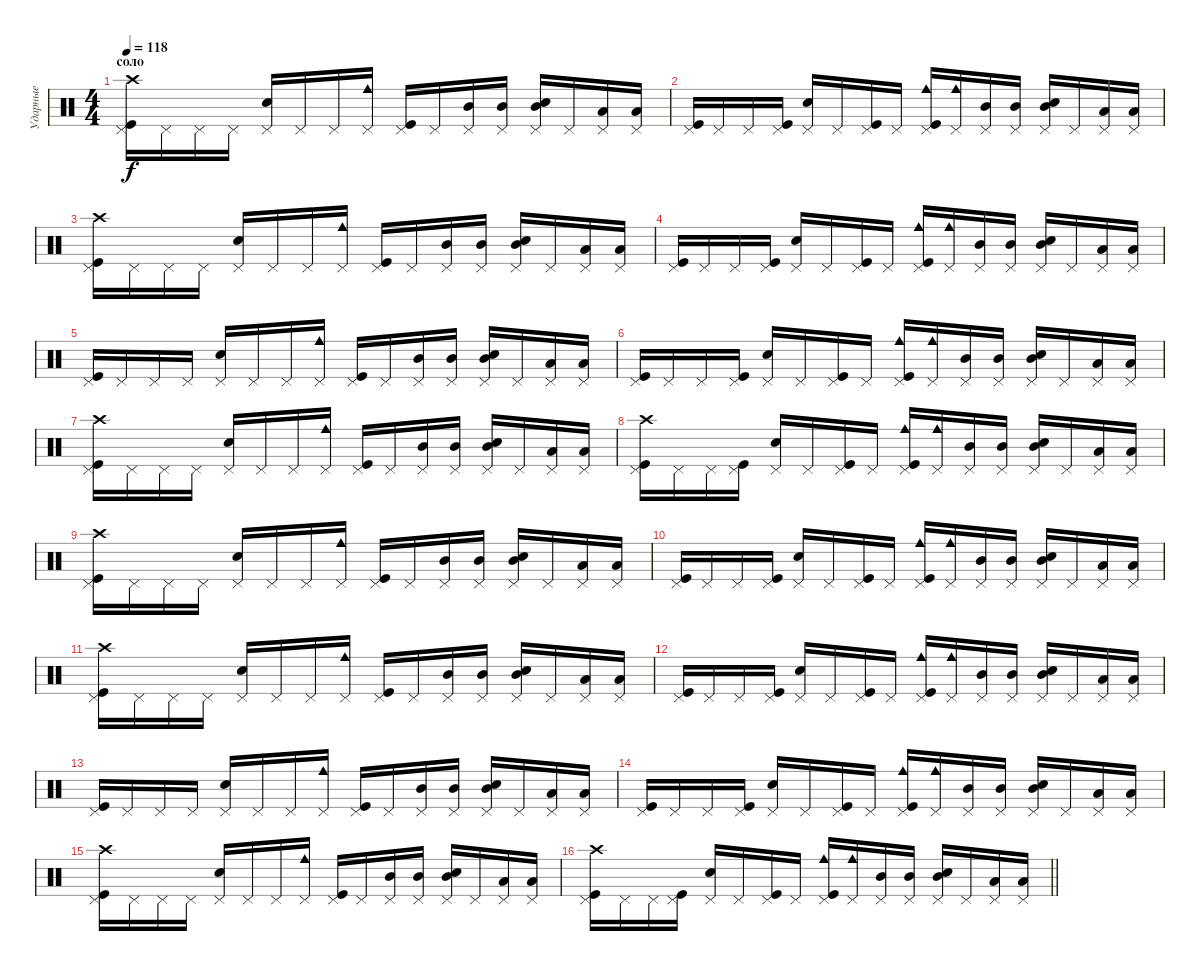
\track ("Ударные" "Ударные") {instrument percussion}
\staff {score}
\articulation defaults
\ts (4 4)
\section ("" "соло")
\tempo 118
\clef neutral
\ks c
("Pedal Hi-Hat (hit)" "Kick (hit)" "Crash high (hit)").16{dy f} "Pedal Hi-Hat (hit)".16 "Pedal Hi-Hat (hit)".16 "Pedal Hi-Hat (hit)".16 ("Pedal Hi-Hat (hit)" "Snare (hit) 2").16 "Pedal Hi-Hat (hit)".16 "Pedal Hi-Hat (hit)".16 ("Pedal Hi-Hat (hit)" "Cowbell medium (hit)").16 ("Pedal Hi-Hat (hit)" "Kick (hit)").16 "Pedal Hi-Hat (hit)".16 ("Pedal Hi-Hat (hit)" "Mid Tom (hit)").16 ("Pedal Hi-Hat (hit)" "Mid Tom (hit)").16 ("Pedal Hi-Hat (hit)" "Mid Tom (hit)" "Snare (hit) 2").16 "Pedal Hi-Hat (hit)".16 ("Pedal Hi-Hat (hit)" "Low Tom (hit)").16 ("Pedal Hi-Hat (hit)" "Low Tom (hit)").16 |
("Pedal Hi-Hat (hit)" "Kick (hit)").16 "Pedal Hi-Hat (hit)".16 "Pedal Hi-Hat (hit)".16 ("Pedal Hi-Hat (hit)" "Kick (hit)").16 ("Pedal Hi-Hat (hit)" "Snare (hit) 2").16 "Pedal Hi-Hat (hit)".16 ("Pedal Hi-Hat (hit)" "Kick (hit)").16 "Pedal Hi-Hat (hit)".16 ("Pedal Hi-Hat (hit)" "Kick (hit)" "Cowbell medium (hit)").16 ("Pedal Hi-Hat (hit)" "Cowbell medium (hit)").16 ("Pedal Hi-Hat (hit)" "Mid Tom (hit)").16 ("Pedal Hi-Hat (hit)" "Mid Tom (hit)").16 ("Pedal Hi-Hat (hit)" "Mid Tom (hit)" "Snare (hit) 2").16 "Pedal Hi-Hat (hit)".16 ("Pedal Hi-Hat (hit)" "Low Tom (hit)").16 ("Pedal Hi-Hat (hit)" "Low Tom (hit)").16 |
("Pedal Hi-Hat (hit)" "Kick (hit)" "Crash high (hit)").16 "Pedal Hi-Hat (hit)".16 "Pedal Hi-Hat (hit)".16 "Pedal Hi-Hat (hit)".16 ("Pedal Hi-Hat (hit)" "Snare (hit) 2").16 "Pedal Hi-Hat (hit)".16 "Pedal Hi-Hat (hit)".16 ("Pedal Hi-Hat (hit)" "Cowbell medium (hit)").16 ("Pedal Hi-Hat (hit)" "Kick (hit)").16 "Pedal Hi-Hat (hit)".16 ("Pedal Hi-Hat (hit)" "Mid Tom (hit)").16 ("Pedal Hi-Hat (hit)" "Mid Tom (hit)").16 ("Pedal Hi-Hat (hit)" "Mid Tom (hit)" "Snare (hit) 2").16 "Pedal Hi-Hat (hit)".16 ("Pedal Hi-Hat (hit)" "Low Tom (hit)").16 ("Pedal Hi-Hat (hit)" "Low Tom (hit)").16 |
("Pedal Hi-Hat (hit)" "Kick (hit)").16 "Pedal Hi-Hat (hit)".16 "Pedal Hi-Hat (hit)".16 ("Pedal Hi-Hat (hit)" "Kick (hit)").16 ("Pedal Hi-Hat (hit)" "Snare (hit) 2").16 "Pedal Hi-Hat (hit)".16 ("Pedal Hi-Hat (hit)" "Kick (hit)").16 "Pedal Hi-Hat (hit)".16 ("Pedal Hi-Hat (hit)" "Kick (hit)" "Cowbell medium (hit)").16 ("Pedal Hi-Hat (hit)" "Cowbell medium (hit)").16 ("Pedal Hi-Hat (hit)" "Mid Tom (hit)").16 ("Pedal Hi-Hat (hit)" "Mid Tom (hit)").16 ("Pedal Hi-Hat (hit)" "Mid Tom (hit)" "Snare (hit) 2").16 "Pedal Hi-Hat (hit)".16 ("Pedal Hi-Hat (hit)" "Low Tom (hit)").16 ("Pedal Hi-Hat (hit)" "Low Tom (hit)").16 |
("Pedal Hi-Hat (hit)" "Kick (hit)").16 "Pedal Hi-Hat (hit)".16 "Pedal Hi-Hat (hit)".16 "Pedal Hi-Hat (hit)".16 ("Pedal Hi-Hat (hit)" "Snare (hit) 2").16 "Pedal Hi-Hat (hit)".16 "Pedal Hi-Hat (hit)".16 ("Pedal Hi-Hat (hit)" "Cowbell medium (hit)").16 ("Pedal Hi-Hat (hit)" "Kick (hit)").16 "Pedal Hi-Hat (hit)".16 ("Pedal Hi-Hat (hit)" "Mid Tom (hit)").16 ("Pedal Hi-Hat (hit)" "Mid Tom (hit)").16 ("Pedal Hi-Hat (hit)" "Mid Tom (hit)" "Snare (hit) 2").16 "Pedal Hi-Hat (hit)".16 ("Pedal Hi-Hat (hit)" "Low Tom (hit)").16 ("Pedal Hi-Hat (hit)" "Low Tom (hit)").16 |
("Pedal Hi-Hat (hit)" "Kick (hit)").16 "Pedal Hi-Hat (hit)".16 "Pedal Hi-Hat (hit)".16 ("Pedal Hi-Hat (hit)" "Kick (hit)").16 ("Pedal Hi-Hat (hit)" "Snare (hit) 2").16 "Pedal Hi-Hat (hit)".16 ("Pedal Hi-Hat (hit)" "Kick (hit)").16 "Pedal Hi-Hat (hit)".16 ("Pedal Hi-Hat (hit)" "Kick (hit)" "Cowbell medium (hit)").16 ("Pedal Hi-Hat (hit)" "Cowbell medium (hit)").16 ("Pedal Hi-Hat (hit)" "Mid Tom (hit)").16 ("Pedal Hi-Hat (hit)" "Mid Tom (hit)").16 ("Pedal Hi-Hat (hit)" "Mid Tom (hit)" "Snare (hit) 2").16 "Pedal Hi-Hat (hit)".16 ("Pedal Hi-Hat (hit)" "Low Tom (hit)").16 ("Pedal Hi-Hat (hit)" "Low Tom (hit)").16 |
("Pedal Hi-Hat (hit)" "Kick (hit)" "Crash high (hit)").16 "Pedal Hi-Hat (hit)".16 "Pedal Hi-Hat (hit)".16 "Pedal Hi-Hat (hit)".16 ("Pedal Hi-Hat (hit)" "Snare (hit) 2").16 "Pedal Hi-Hat (hit)".16 "Pedal Hi-Hat (hit)".16 ("Pedal Hi-Hat (hit)" "Cowbell medium (hit)").16 ("Pedal Hi-Hat (hit)" "Kick (hit)").16 "Pedal Hi-Hat (hit)".16 ("Pedal Hi-Hat (hit)" "Mid Tom (hit)").16 ("Pedal Hi-Hat (hit)" "Mid Tom (hit)").16 ("Pedal Hi-Hat (hit)" "Mid Tom (hit)" "Snare (hit) 2").16 "Pedal Hi-Hat (hit)".16 ("Pedal Hi-Hat (hit)" "Low Tom (hit)").16 ("Pedal Hi-Hat (hit)" "Low Tom (hit)").16 |
("Pedal Hi-Hat (hit)" "Kick (hit)" "Crash high (hit)").16 "Pedal Hi-Hat (hit)".16 "Pedal Hi-Hat (hit)".16 ("Pedal Hi-Hat (hit)" "Kick (hit)").16 ("Pedal Hi-Hat (hit)" "Snare (hit) 2").16 "Pedal Hi-Hat (hit)".16 ("Pedal Hi-Hat (hit)" "Kick (hit)").16 "Pedal Hi-Hat (hit)".16 ("Pedal Hi-Hat (hit)" "Kick (hit)" "Cowbell medium (hit)").16 ("Pedal Hi-Hat (hit)" "Cowbell medium (hit)").16 ("Pedal Hi-Hat (hit)" "Mid Tom (hit)").16 ("Pedal Hi-Hat (hit)" "Mid Tom (hit)").16 ("Pedal Hi-Hat (hit)" "Mid Tom (hit)" "Snare (hit) 2").16 "Pedal Hi-Hat (hit)".16 ("Pedal Hi-Hat (hit)" "Low Tom (hit)").16 ("Pedal Hi-Hat (hit)" "Low Tom (hit)").16 |
("Pedal Hi-Hat (hit)" "Kick (hit)" "Crash high (hit)").16 "Pedal Hi-Hat (hit)".16 "Pedal Hi-Hat (hit)".16 "Pedal Hi-Hat (hit)".16 ("Pedal Hi-Hat (hit)" "Snare (hit) 2").16 "Pedal Hi-Hat (hit)".16 "Pedal Hi-Hat (hit)".16 ("Pedal Hi-Hat (hit)" "Cowbell medium (hit)").16 ("Pedal Hi-Hat (hit)" "Kick (hit)").16 "Pedal Hi-Hat (hit)".16 ("Pedal Hi-Hat (hit)" "Mid Tom (hit)").16 ("Pedal Hi-Hat (hit)" "Mid Tom (hit)").16 ("Pedal Hi-Hat (hit)" "Mid Tom (hit)" "Snare (hit) 2").16 "Pedal Hi-Hat (hit)".16 ("Pedal Hi-Hat (hit)" "Low Tom (hit)").16 ("Pedal Hi-Hat (hit)" "Low Tom (hit)").16 |
("Pedal Hi-Hat (hit)" "Kick (hit)").16 "Pedal Hi-Hat (hit)".16 "Pedal Hi-Hat (hit)".16 ("Pedal Hi-Hat (hit)" "Kick (hit)").16 ("Pedal Hi-Hat (hit)" "Snare (hit) 2").16 "Pedal Hi-Hat (hit)".16 ("Pedal Hi-Hat (hit)" "Kick (hit)").16 "Pedal Hi-Hat (hit)".16 ("Pedal Hi-Hat (hit)" "Kick (hit)" "Cowbell medium (hit)").16 ("Pedal Hi-Hat (hit)" "Cowbell medium (hit)").16 ("Pedal Hi-Hat (hit)" "Mid Tom (hit)").16 ("Pedal Hi-Hat (hit)" "Mid Tom (hit)").16 ("Pedal Hi-Hat (hit)" "Mid Tom (hit)" "Snare (hit) 2").16 "Pedal Hi-Hat (hit)".16 ("Pedal Hi-Hat (hit)" "Low Tom (hit)").16 ("Pedal Hi-Hat (hit)" "Low Tom (hit)").16 |
("Pedal Hi-Hat (hit)" "Kick (hit)" "Crash high (hit)").16 "Pedal Hi-Hat (hit)".16 "Pedal Hi-Hat (hit)".16 "Pedal Hi-Hat (hit)".16 ("Pedal Hi-Hat (hit)" "Snare (hit) 2").16 "Pedal Hi-Hat (hit)".16 "Pedal Hi-Hat (hit)".16 ("Pedal Hi-Hat (hit)" "Cowbell medium (hit)").16 ("Pedal Hi-Hat (hit)" "Kick (hit)").16 "Pedal Hi-Hat (hit)".16 ("Pedal Hi-Hat (hit)" "Mid Tom (hit)").16 ("Pedal Hi-Hat (hit)" "Mid Tom (hit)").16 ("Pedal Hi-Hat (hit)" "Mid Tom (hit)" "Snare (hit) 2").16 "Pedal Hi-Hat (hit)".16 ("Pedal Hi-Hat (hit)" "Low Tom (hit)").16 ("Pedal Hi-Hat (hit)" "Low Tom (hit)").16 |
("Pedal Hi-Hat (hit)" "Kick (hit)").16 "Pedal Hi-Hat (hit)".16 "Pedal Hi-Hat (hit)".16 ("Pedal Hi-Hat (hit)" "Kick (hit)").16 ("Pedal Hi-Hat (hit)" "Snare (hit) 2").16 "Pedal Hi-Hat (hit)".16 ("Pedal Hi-Hat (hit)" "Kick (hit)").16 "Pedal Hi-Hat (hit)".16 ("Pedal Hi-Hat (hit)" "Kick (hit)" "Cowbell medium (hit)").16 ("Pedal Hi-Hat (hit)" "Cowbell medium (hit)").16 ("Pedal Hi-Hat (hit)" "Mid Tom (hit)").16 ("Pedal Hi-Hat (hit)" "Mid Tom (hit)").16 ("Pedal Hi-Hat (hit)" "Mid Tom (hit)" "Snare (hit) 2").16 "Pedal Hi-Hat (hit)".16 ("Pedal Hi-Hat (hit)" "Low Tom (hit)").16 ("Pedal Hi-Hat (hit)" "Low Tom (hit)").16 |
("Pedal Hi-Hat (hit)" "Kick (hit)").16 "Pedal Hi-Hat (hit)".16 "Pedal Hi-Hat (hit)".16 "Pedal Hi-Hat (hit)".16 ("Pedal Hi-Hat (hit)" "Snare (hit) 2").16 "Pedal Hi-Hat (hit)".16 "Pedal Hi-Hat (hit)".16 ("Pedal Hi-Hat (hit)" "Cowbell medium (hit)").16 ("Pedal Hi-Hat (hit)" "Kick (hit)").16 "Pedal Hi-Hat (hit)".16 ("Pedal Hi-Hat (hit)" "Mid Tom (hit)").16 ("Pedal Hi-Hat (hit)" "Mid Tom (hit)").16 ("Pedal Hi-Hat (hit)" "Mid Tom (hit)" "Snare (hit) 2").16 "Pedal Hi-Hat (hit)".16 ("Pedal Hi-Hat (hit)" "Low Tom (hit)").16 ("Pedal Hi-Hat (hit)" "Low Tom (hit)").16 |
("Pedal Hi-Hat (hit)" "Kick (hit)").16 "Pedal Hi-Hat (hit)".16 "Pedal Hi-Hat (hit)".16 ("Pedal Hi-Hat (hit)" "Kick (hit)").16 ("Pedal Hi-Hat (hit)" "Snare (hit) 2").16 "Pedal Hi-Hat (hit)".16 ("Pedal Hi-Hat (hit)" "Kick (hit)").16 "Pedal Hi-Hat (hit)".16 ("Pedal Hi-Hat (hit)" "Kick (hit)" "Cowbell medium (hit)").16 ("Pedal Hi-Hat (hit)" "Cowbell medium (hit)").16 ("Pedal Hi-Hat (hit)" "Mid Tom (hit)").16 ("Pedal Hi-Hat (hit)" "Mid Tom (hit)").16 ("Pedal Hi-Hat (hit)" "Mid Tom (hit)" "Snare (hit) 2").16 "Pedal Hi-Hat (hit)".16 ("Pedal Hi-Hat (hit)" "Low Tom (hit)").16 ("Pedal Hi-Hat (hit)" "Low Tom (hit)").16 |
("Pedal Hi-Hat (hit)" "Kick (hit)" "Crash high (hit)").16 "Pedal Hi-Hat (hit)".16 "Pedal Hi-Hat (hit)".16 "Pedal Hi-Hat (hit)".16 ("Pedal Hi-Hat (hit)" "Snare (hit) 2").16 "Pedal Hi-Hat (hit)".16 "Pedal Hi-Hat (hit)".16 ("Pedal Hi-Hat (hit)" "Cowbell medium (hit)").16 ("Pedal Hi-Hat (hit)" "Kick (hit)").16 "Pedal Hi-Hat (hit)".16 ("Pedal Hi-Hat (hit)" "Mid Tom (hit)").16 ("Pedal Hi-Hat (hit)" "Mid Tom (hit)").16 ("Pedal Hi-Hat (hit)" "Mid Tom (hit)" "Snare (hit) 2").16 "Pedal Hi-Hat (hit)".16 ("Pedal Hi-Hat (hit)" "Low Tom (hit)").16 ("Pedal Hi-Hat (hit)" "Low Tom (hit)").16 |
\barLineRight lightlight
("Pedal Hi-Hat (hit)" "Kick (hit)" "Crash high (hit)").16 "Pedal Hi-Hat (hit)".16 "Pedal Hi-Hat (hit)".16 ("Pedal Hi-Hat (hit)" "Kick (hit)").16 ("Pedal Hi-Hat (hit)" "Snare (hit) 2").16 "Pedal Hi-Hat (hit)".16 ("Pedal Hi-Hat (hit)" "Kick (hit)").16 "Pedal Hi-Hat (hit)".16 ("Pedal Hi-Hat (hit)" "Kick (hit)" "Cowbell medium (hit)").16 ("Pedal Hi-Hat (hit)" "Cowbell medium (hit)").16 ("Pedal Hi-Hat (hit)" "Mid Tom (hit)").16 ("Pedal Hi-Hat (hit)" "Mid Tom (hit)").16 ("Pedal Hi-Hat (hit)" "Mid Tom (hit)" "Snare (hit) 2").16 "Pedal Hi-Hat (hit)".16 ("Pedal Hi-Hat (hit)" "Low Tom (hit)").16 ("Pedal Hi-Hat (hit)" "Low Tom (hit)").16
